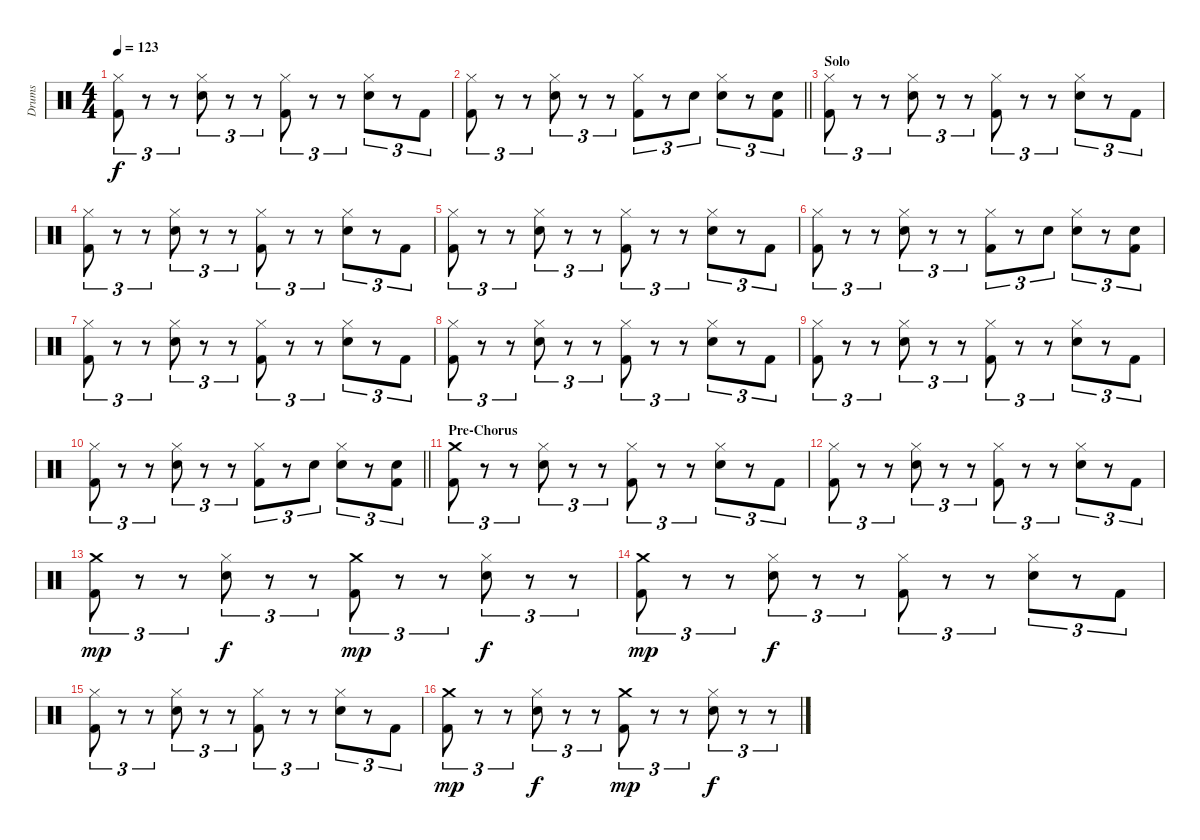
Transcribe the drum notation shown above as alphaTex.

\track ("Drums" "Drums") {instrument percussion}
\staff {score}
\articulation defaults
\ts (4 4)
\tempo 123
\clef neutral
\ks c
("Hi-Hat (closed)" "Kick (hit) 2").8{tu (3 2) dy f} r.8{tu (3 2)} r.8{tu (3 2)} ("Hi-Hat (closed)" "Snare (hit) 2").8{tu (3 2)} r.8{tu (3 2)} r.8{tu (3 2)} ("Hi-Hat (closed)" "Kick (hit) 2").8{tu (3 2)} r.8{tu (3 2)} r.8{tu (3 2)} ("Hi-Hat (closed)" "Snare (hit) 2").8{tu (3 2)} r.8{tu (3 2)} "Kick (hit) 2".8{tu (3 2)} |
\barLineRight lightlight
("Hi-Hat (closed)" "Kick (hit) 2").8{tu (3 2)} r.8{tu (3 2)} r.8{tu (3 2)} ("Hi-Hat (closed)" "Snare (hit) 2").8{tu (3 2)} r.8{tu (3 2)} r.8{tu (3 2)} ("Hi-Hat (closed)" "Kick (hit) 2").8{tu (3 2)} r.8{tu (3 2)} "Snare (hit) 2".8{tu (3 2)} ("Hi-Hat (closed)" "Snare (hit) 2").8{tu (3 2)} r.8{tu (3 2)} ("Snare (hit) 2" "Kick (hit) 2").8{tu (3 2)} |
\section ("" "Solo")
("Hi-Hat (closed)" "Kick (hit) 2").8{tu (3 2)} r.8{tu (3 2)} r.8{tu (3 2)} ("Hi-Hat (closed)" "Snare (hit) 2").8{tu (3 2)} r.8{tu (3 2)} r.8{tu (3 2)} ("Hi-Hat (closed)" "Kick (hit) 2").8{tu (3 2)} r.8{tu (3 2)} r.8{tu (3 2)} ("Hi-Hat (closed)" "Snare (hit) 2").8{tu (3 2)} r.8{tu (3 2)} "Kick (hit) 2".8{tu (3 2)} |
("Hi-Hat (closed)" "Kick (hit) 2").8{tu (3 2)} r.8{tu (3 2)} r.8{tu (3 2)} ("Hi-Hat (closed)" "Snare (hit) 2").8{tu (3 2)} r.8{tu (3 2)} r.8{tu (3 2)} ("Hi-Hat (closed)" "Kick (hit) 2").8{tu (3 2)} r.8{tu (3 2)} r.8{tu (3 2)} ("Hi-Hat (closed)" "Snare (hit) 2").8{tu (3 2)} r.8{tu (3 2)} "Kick (hit) 2".8{tu (3 2)} |
("Hi-Hat (closed)" "Kick (hit) 2").8{tu (3 2)} r.8{tu (3 2)} r.8{tu (3 2)} ("Hi-Hat (closed)" "Snare (hit) 2").8{tu (3 2)} r.8{tu (3 2)} r.8{tu (3 2)} ("Hi-Hat (closed)" "Kick (hit) 2").8{tu (3 2)} r.8{tu (3 2)} r.8{tu (3 2)} ("Hi-Hat (closed)" "Snare (hit) 2").8{tu (3 2)} r.8{tu (3 2)} "Kick (hit) 2".8{tu (3 2)} |
("Hi-Hat (closed)" "Kick (hit) 2").8{tu (3 2)} r.8{tu (3 2)} r.8{tu (3 2)} ("Hi-Hat (closed)" "Snare (hit) 2").8{tu (3 2)} r.8{tu (3 2)} r.8{tu (3 2)} ("Hi-Hat (closed)" "Kick (hit) 2").8{tu (3 2)} r.8{tu (3 2)} "Snare (hit) 2".8{tu (3 2)} ("Hi-Hat (closed)" "Snare (hit) 2").8{tu (3 2)} r.8{tu (3 2)} ("Snare (hit) 2" "Kick (hit) 2").8{tu (3 2)} |
("Hi-Hat (closed)" "Kick (hit) 2").8{tu (3 2)} r.8{tu (3 2)} r.8{tu (3 2)} ("Hi-Hat (closed)" "Snare (hit) 2").8{tu (3 2)} r.8{tu (3 2)} r.8{tu (3 2)} ("Hi-Hat (closed)" "Kick (hit) 2").8{tu (3 2)} r.8{tu (3 2)} r.8{tu (3 2)} ("Hi-Hat (closed)" "Snare (hit) 2").8{tu (3 2)} r.8{tu (3 2)} "Kick (hit) 2".8{tu (3 2)} |
("Hi-Hat (closed)" "Kick (hit) 2").8{tu (3 2)} r.8{tu (3 2)} r.8{tu (3 2)} ("Hi-Hat (closed)" "Snare (hit) 2").8{tu (3 2)} r.8{tu (3 2)} r.8{tu (3 2)} ("Hi-Hat (closed)" "Kick (hit) 2").8{tu (3 2)} r.8{tu (3 2)} r.8{tu (3 2)} ("Hi-Hat (closed)" "Snare (hit) 2").8{tu (3 2)} r.8{tu (3 2)} "Kick (hit) 2".8{tu (3 2)} |
("Hi-Hat (closed)" "Kick (hit) 2").8{tu (3 2)} r.8{tu (3 2)} r.8{tu (3 2)} ("Hi-Hat (closed)" "Snare (hit) 2").8{tu (3 2)} r.8{tu (3 2)} r.8{tu (3 2)} ("Hi-Hat (closed)" "Kick (hit) 2").8{tu (3 2)} r.8{tu (3 2)} r.8{tu (3 2)} ("Hi-Hat (closed)" "Snare (hit) 2").8{tu (3 2)} r.8{tu (3 2)} "Kick (hit) 2".8{tu (3 2)} |
\barLineRight lightlight
("Hi-Hat (closed)" "Kick (hit) 2").8{tu (3 2)} r.8{tu (3 2)} r.8{tu (3 2)} ("Hi-Hat (closed)" "Snare (hit) 2").8{tu (3 2)} r.8{tu (3 2)} r.8{tu (3 2)} ("Hi-Hat (closed)" "Kick (hit) 2").8{tu (3 2)} r.8{tu (3 2)} "Snare (hit) 2".8{tu (3 2)} ("Hi-Hat (closed)" "Snare (hit) 2").8{tu (3 2)} r.8{tu (3 2)} ("Snare (hit) 2" "Kick (hit) 2").8{tu (3 2)} |
\section ("" "Pre-Chorus")
("Crash medium (hit)" "Kick (hit) 2").8{tu (3 2)} r.8{tu (3 2)} r.8{tu (3 2)} ("Hi-Hat (closed)" "Snare (hit) 2").8{tu (3 2)} r.8{tu (3 2)} r.8{tu (3 2)} ("Hi-Hat (closed)" "Kick (hit) 2").8{tu (3 2)} r.8{tu (3 2)} r.8{tu (3 2)} ("Hi-Hat (closed)" "Snare (hit) 2").8{tu (3 2)} r.8{tu (3 2)} "Kick (hit) 2".8{tu (3 2)} |
("Hi-Hat (closed)" "Kick (hit) 2").8{tu (3 2)} r.8{tu (3 2)} r.8{tu (3 2)} ("Hi-Hat (closed)" "Snare (hit) 2").8{tu (3 2)} r.8{tu (3 2)} r.8{tu (3 2)} ("Hi-Hat (closed)" "Kick (hit) 2").8{tu (3 2)} r.8{tu (3 2)} r.8{tu (3 2)} ("Hi-Hat (closed)" "Snare (hit) 2").8{tu (3 2)} r.8{tu (3 2)} "Kick (hit) 2".8{tu (3 2)} |
("Crash medium (hit)" "Kick (hit) 2").8{tu (3 2) dy mp} r.8{tu (3 2)} r.8{tu (3 2)} ("Hi-Hat (closed)" "Snare (hit) 2").8{tu (3 2) dy f} r.8{tu (3 2)} r.8{tu (3 2)} ("Crash medium (hit)" "Kick (hit) 2").8{tu (3 2) dy mp} r.8{tu (3 2)} r.8{tu (3 2)} ("Hi-Hat (closed)" "Snare (hit) 2").8{tu (3 2) dy f} r.8{tu (3 2)} r.8{tu (3 2)} |
("Crash medium (hit)" "Kick (hit) 2").8{tu (3 2) dy mp} r.8{tu (3 2)} r.8{tu (3 2)} ("Hi-Hat (closed)" "Snare (hit) 2").8{tu (3 2) dy f} r.8{tu (3 2)} r.8{tu (3 2)} ("Hi-Hat (closed)" "Kick (hit) 2").8{tu (3 2)} r.8{tu (3 2)} r.8{tu (3 2)} ("Hi-Hat (closed)" "Snare (hit) 2").8{tu (3 2)} r.8{tu (3 2)} "Kick (hit) 2".8{tu (3 2)} |
("Hi-Hat (closed)" "Kick (hit) 2").8{tu (3 2)} r.8{tu (3 2)} r.8{tu (3 2)} ("Hi-Hat (closed)" "Snare (hit) 2").8{tu (3 2)} r.8{tu (3 2)} r.8{tu (3 2)} ("Hi-Hat (closed)" "Kick (hit) 2").8{tu (3 2)} r.8{tu (3 2)} r.8{tu (3 2)} ("Hi-Hat (closed)" "Snare (hit) 2").8{tu (3 2)} r.8{tu (3 2)} "Kick (hit) 2".8{tu (3 2)} |
("Crash medium (hit)" "Kick (hit) 2").8{tu (3 2) dy mp} r.8{tu (3 2)} r.8{tu (3 2)} ("Hi-Hat (closed)" "Snare (hit) 2").8{tu (3 2) dy f} r.8{tu (3 2)} r.8{tu (3 2)} ("Crash medium (hit)" "Kick (hit) 2").8{tu (3 2) dy mp} r.8{tu (3 2)} r.8{tu (3 2)} ("Hi-Hat (closed)" "Snare (hit) 2").8{tu (3 2) dy f} r.8{tu (3 2)} r.8{tu (3 2)}
